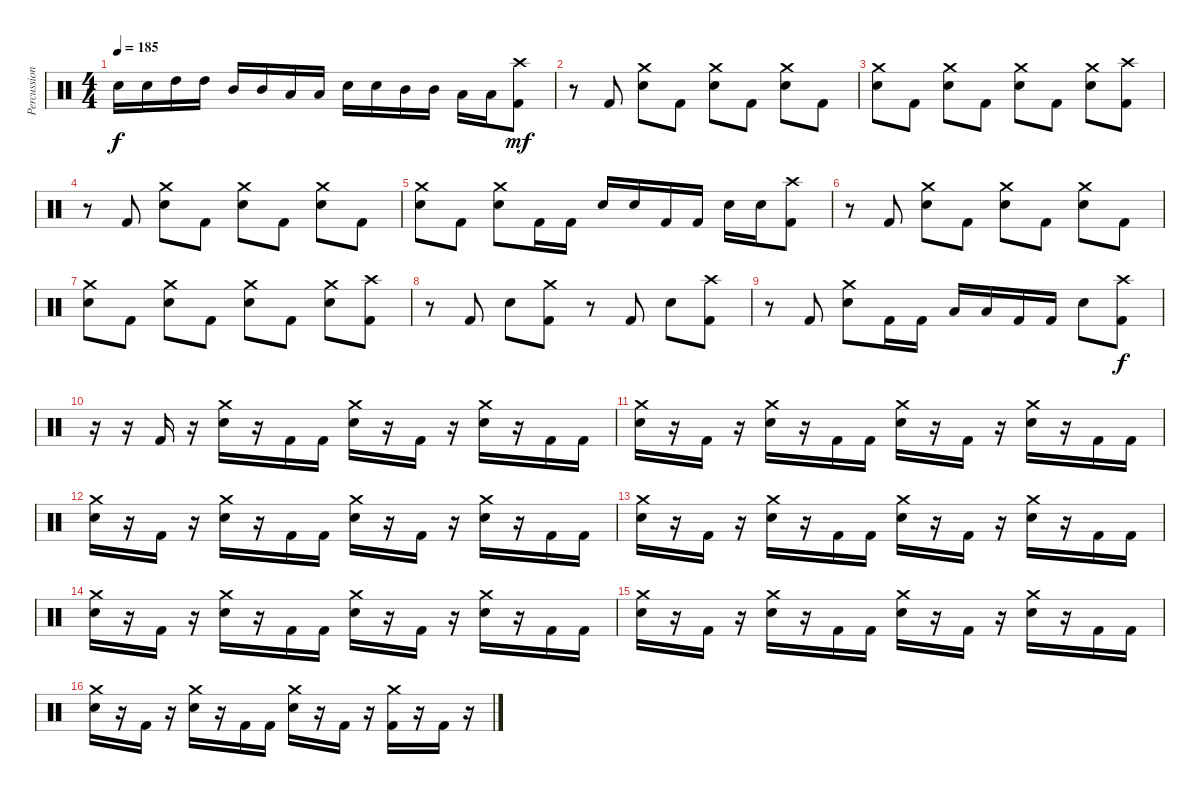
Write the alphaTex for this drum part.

\track ("Percussions" "Percussion") {instrument percussion}
\staff {score}
\articulation defaults
\ts (4 4)
\tempo 185
\clef neutral
\ks c "Electric Snare (hit)".16{dy f} "Electric Snare (hit)".16 "High Tom (hit)".16 "High Tom (hit)".16 "Mid Tom (hit)".16 "Mid Tom (hit)".16 "Low Tom (hit)".16 "Low Tom (hit)".16 "Electric Snare (hit)".16 "Electric Snare (hit)".16 "Mid Tom (hit)".16 "Mid Tom (hit)".16 "Low Tom (hit)".16 "Low Tom (hit)".16
("Kick (hit) 2" "Crash high (hit)").8{dy mf} |
r.8 "Kick (hit) 2".8 ("Electric Snare (hit)" "Crash medium (hit)").8 "Kick (hit) 2".8 ("Electric Snare (hit)" "Crash medium (hit)").8 "Kick (hit) 2".8 ("Electric Snare (hit)" "Crash medium (hit)").8 "Kick (hit) 2".8 |
("Electric Snare (hit)" "Crash medium (hit)").8 "Kick (hit) 2".8 ("Electric Snare (hit)" "Crash medium (hit)").8 "Kick (hit) 2".8 ("Electric Snare (hit)" "Crash medium (hit)").8 "Kick (hit) 2".8 ("Electric Snare (hit)" "Crash medium (hit)").8 ("Kick (hit) 2" "Crash high (hit)").8 |
r.8 "Kick (hit) 2".8 ("Electric Snare (hit)" "Crash medium (hit)").8 "Kick (hit) 2".8 ("Electric Snare (hit)" "Crash medium (hit)").8 "Kick (hit) 2".8 ("Electric Snare (hit)" "Crash medium (hit)").8 "Kick (hit) 2".8 |
("Electric Snare (hit)" "Crash medium (hit)").8 "Kick (hit) 2".8 ("Electric Snare (hit)" "Crash medium (hit)").8 "Kick (hit) 2".16 "Kick (hit) 2".16 "Electric Snare (hit)".16 "Electric Snare (hit)".16 "Kick (hit) 2".16 "Kick (hit) 2".16 "Electric Snare (hit)".16 "Electric Snare (hit)".16 ("Kick (hit) 2" "Crash high (hit)").8 |
r.8 "Kick (hit) 2".8 ("Electric Snare (hit)" "Crash medium (hit)").8 "Kick (hit) 2".8 ("Electric Snare (hit)" "Crash medium (hit)").8 "Kick (hit) 2".8 ("Electric Snare (hit)" "Crash medium (hit)").8 "Kick (hit) 2".8 |
("Electric Snare (hit)" "Crash medium (hit)").8 "Kick (hit) 2".8 ("Electric Snare (hit)" "Crash medium (hit)").8 "Kick (hit) 2".8 ("Electric Snare (hit)" "Crash medium (hit)").8 "Kick (hit) 2".8 ("Electric Snare (hit)" "Crash medium (hit)").8 ("Kick (hit) 2" "Crash high (hit)").8 |
r.8 "Kick (hit) 2".8 "Electric Snare (hit)".8 ("Kick (hit) 2" "Crash medium (hit)").8 r.8 "Kick (hit) 2".8 "Electric Snare (hit)".8 ("Kick (hit) 2" "Crash high (hit)").8 |
r.8 "Kick (hit) 2".8 ("Electric Snare (hit)" "Crash medium (hit)").8 "Kick (hit) 2".16 "Kick (hit) 2".16 "Low Tom (hit)".16 "Low Tom (hit)".16 "Kick (hit) 2".16 "Kick (hit) 2".16 "Electric Snare (hit)".8 ("Kick (hit) 2" "Crash high (hit)").8{dy f} |
r.16 r.16 "Kick (hit) 2".16 r.16 ("Electric Snare (hit)" "Crash medium (hit)").16 r.16 "Kick (hit) 2".16 "Kick (hit) 2".16 ("Electric Snare (hit)" "Crash medium (hit)").16 r.16 "Kick (hit) 2".16 r.16 ("Electric Snare (hit)" "Crash medium (hit)").16 r.16 "Kick (hit) 2".16 "Kick (hit) 2".16 |
("Electric Snare (hit)" "Crash medium (hit)").16 r.16 "Kick (hit) 2".16 r.16 ("Electric Snare (hit)" "Crash medium (hit)").16 r.16 "Kick (hit) 2".16 "Kick (hit) 2".16 ("Electric Snare (hit)" "Crash medium (hit)").16 r.16 "Kick (hit) 2".16 r.16 ("Electric Snare (hit)" "Crash medium (hit)").16 r.16 "Kick (hit) 2".16 "Kick (hit) 2".16 |
("Electric Snare (hit)" "Crash medium (hit)").16 r.16 "Kick (hit) 2".16 r.16 ("Electric Snare (hit)" "Crash medium (hit)").16 r.16 "Kick (hit) 2".16 "Kick (hit) 2".16 ("Electric Snare (hit)" "Crash medium (hit)").16 r.16 "Kick (hit) 2".16 r.16 ("Electric Snare (hit)" "Crash medium (hit)").16 r.16 "Kick (hit) 2".16 "Kick (hit) 2".16 |
("Electric Snare (hit)" "Crash medium (hit)").16 r.16 "Kick (hit) 2".16 r.16 ("Electric Snare (hit)" "Crash medium (hit)").16 r.16 "Kick (hit) 2".16 "Kick (hit) 2".16 ("Electric Snare (hit)" "Crash medium (hit)").16 r.16 "Kick (hit) 2".16 r.16 ("Electric Snare (hit)" "Crash medium (hit)").16 r.16 "Kick (hit) 2".16 "Kick (hit) 2".16 |
("Electric Snare (hit)" "Crash medium (hit)").16 r.16 "Kick (hit) 2".16 r.16 ("Electric Snare (hit)" "Crash medium (hit)").16 r.16 "Kick (hit) 2".16 "Kick (hit) 2".16 ("Electric Snare (hit)" "Crash medium (hit)").16 r.16 "Kick (hit) 2".16 r.16 ("Electric Snare (hit)" "Crash medium (hit)").16 r.16 "Kick (hit) 2".16 "Kick (hit) 2".16 |
("Electric Snare (hit)" "Crash medium (hit)").16 r.16 "Kick (hit) 2".16 r.16 ("Electric Snare (hit)" "Crash medium (hit)").16 r.16 "Kick (hit) 2".16 "Kick (hit) 2".16 ("Electric Snare (hit)" "Crash medium (hit)").16 r.16 "Kick (hit) 2".16 r.16 ("Electric Snare (hit)" "Crash medium (hit)").16 r.16 "Kick (hit) 2".16 "Kick (hit) 2".16 |
("Electric Snare (hit)" "Crash medium (hit)").16 r.16 "Kick (hit) 2".16 r.16 ("Electric Snare (hit)" "Crash medium (hit)").16 r.16 "Kick (hit) 2".16 "Kick (hit) 2".16 ("Electric Snare (hit)" "Crash medium (hit)").16 r.16 "Kick (hit) 2".16 r.16 ("Kick (hit) 2" "Crash medium (hit)").16 r.16 "Kick (hit) 2".16 r.16
